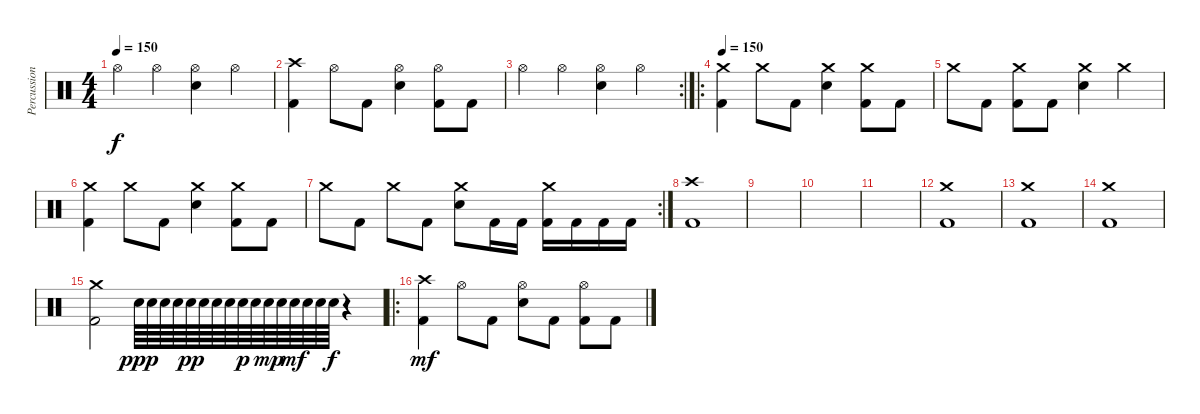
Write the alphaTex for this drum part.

\track ("Percussion" "Percussion") {instrument percussion}
\staff {score}
\articulation defaults
\ts (4 4)
\tempo 150
\clef neutral
\ks c "Hi-Hat (open)".4{dy f} "Hi-Hat (open)".4
("Hi-Hat (open)" "Snare (hit) 2").4 "Hi-Hat (open)".4 |
("Crash high (hit)" "Kick (hit) 2").4 "Hi-Hat (open)".8 "Kick (hit) 2".8 ("Hi-Hat (open)" "Snare (hit) 2").4 ("Hi-Hat (open)" "Kick (hit) 2").8 "Kick (hit) 2".8 |
\rc 2 "Hi-Hat (open)".4 "Hi-Hat (open)".4
("Hi-Hat (open)" "Snare (hit) 2").4 "Hi-Hat (open)".4 |
\ro
\tempo 150
("Crash medium (hit)" "Kick (hit) 2").4 "Crash medium (hit)".8 "Kick (hit) 2".8 ("Crash medium (hit)" "Snare (hit) 2").4 ("Crash medium (hit)" "Kick (hit) 2").8 "Kick (hit) 2".8 |
"Crash medium (hit)".8 "Kick (hit) 2".8 ("Crash medium (hit)" "Kick (hit) 2").8 "Kick (hit) 2".8 ("Crash medium (hit)" "Snare (hit) 2").4 "Crash medium (hit)".4 |
("Crash medium (hit)" "Kick (hit) 2").4 "Crash medium (hit)".8 "Kick (hit) 2".8 ("Crash medium (hit)" "Snare (hit) 2").4 ("Crash medium (hit)" "Kick (hit) 2").8 "Kick (hit) 2".8 |
\rc 2 "Crash medium (hit)".8 "Kick (hit) 2".8 "Crash medium (hit)".8 "Kick (hit) 2".8
("Crash medium (hit)" "Snare (hit) 2").8 "Kick (hit) 2".16 "Kick (hit) 2".16 ("Crash medium (hit)" "Kick (hit) 2").16 "Kick (hit) 2".16 "Kick (hit) 2".16 "Kick (hit) 2".16 |
("Crash high (hit)" "Kick (hit) 2").1 |
|
|
|
("Crash medium (hit)" "Kick (hit) 2").1 |
("Crash medium (hit)" "Kick (hit) 2").1 |
("Crash medium (hit)" "Kick (hit) 2").1 |
("Crash medium (hit)" "Kick (hit) 2").2 "Snare (hit) 2".64{dy ppp} "Snare (hit) 2".64 "Snare (hit) 2".64 "Snare (hit) 2".64 "Snare (hit) 2".64{dy pp} "Snare (hit) 2".64 "Snare (hit) 2".64 "Snare (hit) 2".64 "Snare (hit) 2".64{dy p} "Snare (hit) 2".64 "Snare (hit) 2".64{dy mp} "Snare (hit) 2".64 "Snare (hit) 2".64{dy mf} "Snare (hit) 2".64 "Snare (hit) 2".64 "Snare (hit) 2".64{dy f} r.4 |
\ro
("Crash high (hit)" "Kick (hit) 2").4{dy mf} "Hi-Hat (open)".8 "Kick (hit) 2".8 ("Hi-Hat (open)" "Snare (hit) 2").8 "Kick (hit) 2".8 ("Hi-Hat (open)" "Kick (hit) 2").8 "Kick (hit) 2".8
